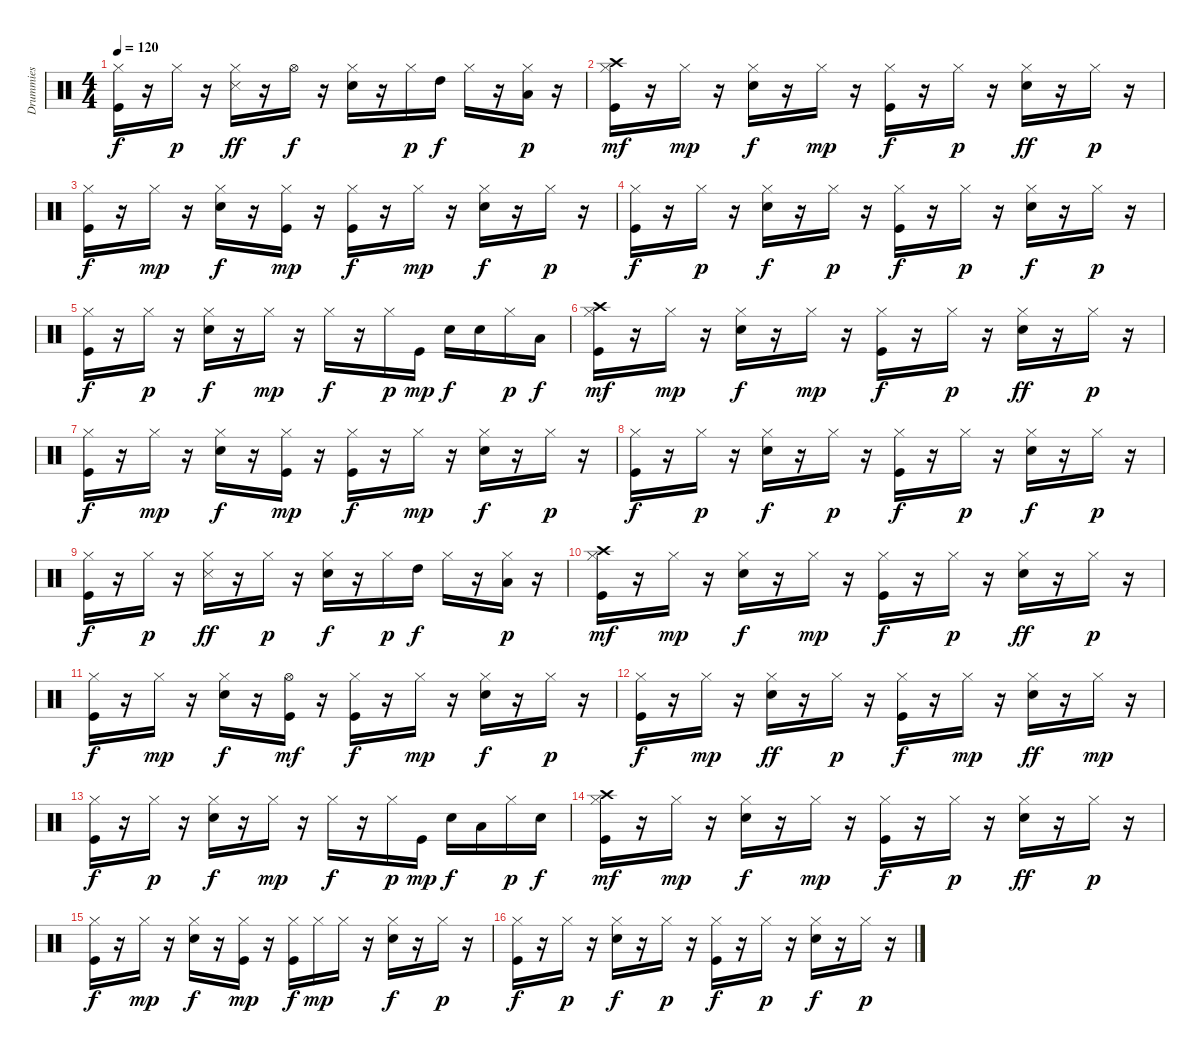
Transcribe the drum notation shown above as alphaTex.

\track ("Drummies" "Drummies") {instrument percussion}
\staff {score}
\articulation defaults
\ts (4 4)
\tempo 120
\clef neutral
\ks c
("Kick (hit)" "Hi-Hat (closed)").16{dy f} r.16 "Hi-Hat (closed)".16{dy p} r.16 ("Hi-Hat (closed)" "Snare (side stick) 3").16{dy ff} r.16 "Hi-Hat (open)".16{dy f} r.16 ("Snare (hit) 2" "Hi-Hat (closed)").16 r.16 "Hi-Hat (closed)".16{dy p} "High Tom (hit)".16{dy f} "Hi-Hat (closed)".16 r.16 ("Hi-Hat (closed)" "Low Tom (hit)").16{dy p} r.16 |
("Kick (hit)" "Hi-Hat (closed)" "Crash high (hit)").16{dy mf} r.16 "Hi-Hat (closed)".16{dy mp} r.16 ("Snare (hit) 2" "Hi-Hat (closed)").16{dy f} r.16 "Hi-Hat (closed)".16{dy mp} r.16 ("Kick (hit)" "Hi-Hat (closed)").16{dy f} r.16 "Hi-Hat (closed)".16{dy p} r.16 ("Snare (hit) 2" "Hi-Hat (closed)").16{dy ff} r.16 "Hi-Hat (closed)".16{dy p} r.16 |
("Kick (hit)" "Hi-Hat (closed)").16{dy f} r.16 "Hi-Hat (closed)".16{dy mp} r.16 ("Snare (hit) 2" "Hi-Hat (closed)").16{dy f} r.16 ("Kick (hit)" "Hi-Hat (closed)").16{dy mp} r.16 ("Kick (hit)" "Hi-Hat (closed)").16{dy f} r.16 "Hi-Hat (closed)".16{dy mp} r.16 ("Snare (hit) 2" "Hi-Hat (closed)").16{dy f} r.16 "Hi-Hat (closed)".16{dy p} r.16 |
("Kick (hit)" "Hi-Hat (closed)").16{dy f} r.16 "Hi-Hat (closed)".16{dy p} r.16 ("Snare (hit) 2" "Hi-Hat (closed)").16{dy f} r.16 "Hi-Hat (closed)".16{dy p} r.16 ("Kick (hit)" "Hi-Hat (closed)").16{dy f} r.16 "Hi-Hat (closed)".16{dy p} r.16 ("Snare (hit) 2" "Hi-Hat (closed)").16{dy f} r.16 "Hi-Hat (closed)".16{dy p} r.16 |
("Kick (hit)" "Hi-Hat (closed)").16{dy f} r.16 "Hi-Hat (closed)".16{dy p} r.16 ("Snare (hit) 2" "Hi-Hat (closed)").16{dy f} r.16 "Hi-Hat (closed)".16{dy mp} r.16 "Hi-Hat (closed)".16{dy f} r.16 "Hi-Hat (closed)".16{dy p} "Kick (hit)".16{dy mp} "Snare (hit) 2".16{dy f} "Snare (hit) 2".16 "Hi-Hat (closed)".16{dy p} "Low Tom (hit)".16{dy f} |
("Kick (hit)" "Hi-Hat (closed)" "Crash high (hit)").16{dy mf} r.16 "Hi-Hat (closed)".16{dy mp} r.16 ("Snare (hit) 2" "Hi-Hat (closed)").16{dy f} r.16 "Hi-Hat (closed)".16{dy mp} r.16 ("Kick (hit)" "Hi-Hat (closed)").16{dy f} r.16 "Hi-Hat (closed)".16{dy p} r.16 ("Snare (hit) 2" "Hi-Hat (closed)").16{dy ff} r.16 "Hi-Hat (closed)".16{dy p} r.16 |
("Kick (hit)" "Hi-Hat (closed)").16{dy f} r.16 "Hi-Hat (closed)".16{dy mp} r.16 ("Snare (hit) 2" "Hi-Hat (closed)").16{dy f} r.16 ("Kick (hit)" "Hi-Hat (closed)").16{dy mp} r.16 ("Kick (hit)" "Hi-Hat (closed)").16{dy f} r.16 "Hi-Hat (closed)".16{dy mp} r.16 ("Snare (hit) 2" "Hi-Hat (closed)").16{dy f} r.16 "Hi-Hat (closed)".16{dy p} r.16 |
("Kick (hit)" "Hi-Hat (closed)").16{dy f} r.16 "Hi-Hat (closed)".16{dy p} r.16 ("Snare (hit) 2" "Hi-Hat (closed)").16{dy f} r.16 "Hi-Hat (closed)".16{dy p} r.16 ("Kick (hit)" "Hi-Hat (closed)").16{dy f} r.16 "Hi-Hat (closed)".16{dy p} r.16 ("Snare (hit) 2" "Hi-Hat (closed)").16{dy f} r.16 "Hi-Hat (closed)".16{dy p} r.16 |
("Kick (hit)" "Hi-Hat (closed)").16{dy f} r.16 "Hi-Hat (closed)".16{dy p} r.16 ("Hi-Hat (closed)" "Snare (side stick) 3").16{dy ff} r.16 "Hi-Hat (closed)".16{dy p} r.16 ("Snare (hit) 2" "Hi-Hat (closed)").16{dy f} r.16 "Hi-Hat (closed)".16{dy p} "High Tom (hit)".16{dy f} "Hi-Hat (closed)".16 r.16 ("Hi-Hat (closed)" "Low Tom (hit)").16{dy p} r.16 |
("Kick (hit)" "Hi-Hat (closed)" "Crash high (hit)").16{dy mf} r.16 "Hi-Hat (closed)".16{dy mp} r.16 ("Snare (hit) 2" "Hi-Hat (closed)").16{dy f} r.16 "Hi-Hat (closed)".16{dy mp} r.16 ("Kick (hit)" "Hi-Hat (closed)").16{dy f} r.16 "Hi-Hat (closed)".16{dy p} r.16 ("Snare (hit) 2" "Hi-Hat (closed)").16{dy ff} r.16 "Hi-Hat (closed)".16{dy p} r.16 |
("Kick (hit)" "Hi-Hat (closed)").16{dy f} r.16 "Hi-Hat (closed)".16{dy mp} r.16 ("Snare (hit) 2" "Hi-Hat (closed)").16{dy f} r.16 ("Kick (hit)" "Hi-Hat (open)").16{dy mf} r.16 ("Kick (hit)" "Hi-Hat (closed)").16{dy f} r.16 "Hi-Hat (closed)".16{dy mp} r.16 ("Snare (hit) 2" "Hi-Hat (closed)").16{dy f} r.16 "Hi-Hat (closed)".16{dy p} r.16 |
("Kick (hit)" "Hi-Hat (closed)").16{dy f} r.16 "Hi-Hat (closed)".16{dy mp} r.16 ("Snare (hit) 2" "Hi-Hat (closed)").16{dy ff} r.16 "Hi-Hat (closed)".16{dy p} r.16 ("Kick (hit)" "Hi-Hat (closed)").16{dy f} r.16 "Hi-Hat (closed)".16{dy mp} r.16 ("Snare (hit) 2" "Hi-Hat (closed)").16{dy ff} r.16 "Hi-Hat (closed)".16{dy mp} r.16 |
("Kick (hit)" "Hi-Hat (closed)").16{dy f} r.16 "Hi-Hat (closed)".16{dy p} r.16 ("Snare (hit) 2" "Hi-Hat (closed)").16{dy f} r.16 "Hi-Hat (closed)".16{dy mp} r.16 "Hi-Hat (closed)".16{dy f} r.16 "Hi-Hat (closed)".16{dy p} "Kick (hit)".16{dy mp} "Snare (hit) 2".16{dy f} "Low Tom (hit)".16 "Hi-Hat (closed)".16{dy p} "Snare (hit) 2".16{dy f} |
("Kick (hit)" "Hi-Hat (closed)" "Crash high (hit)").16{dy mf} r.16 "Hi-Hat (closed)".16{dy mp} r.16 ("Snare (hit) 2" "Hi-Hat (closed)").16{dy f} r.16 "Hi-Hat (closed)".16{dy mp} r.16 ("Kick (hit)" "Hi-Hat (closed)").16{dy f} r.16 "Hi-Hat (closed)".16{dy p} r.16 ("Snare (hit) 2" "Hi-Hat (closed)").16{dy ff} r.16 "Hi-Hat (closed)".16{dy p} r.16 |
("Kick (hit)" "Hi-Hat (closed)").16{dy f} r.16 "Hi-Hat (closed)".16{dy mp} r.16 ("Snare (hit) 2" "Hi-Hat (closed)").16{dy f} r.16 ("Kick (hit)" "Hi-Hat (closed)").16{dy mp} r.16 ("Kick (hit)" "Hi-Hat (closed)").16{dy f} "Hi-Hat (closed)".16{dy mp} "Hi-Hat (closed)".16 r.16 ("Snare (hit) 2" "Hi-Hat (closed)").16{dy f} r.16 "Hi-Hat (closed)".16{dy p} r.16 |
("Kick (hit)" "Hi-Hat (closed)").16{dy f} r.16 "Hi-Hat (closed)".16{dy p} r.16 ("Snare (hit) 2" "Hi-Hat (closed)").16{dy f} r.16 "Hi-Hat (closed)".16{dy p} r.16 ("Kick (hit)" "Hi-Hat (closed)").16{dy f} r.16 "Hi-Hat (closed)".16{dy p} r.16 ("Snare (hit) 2" "Hi-Hat (closed)").16{dy f} r.16 "Hi-Hat (closed)".16{dy p} r.16
